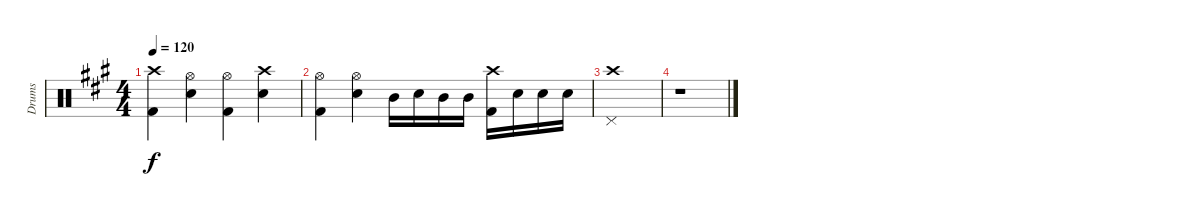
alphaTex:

\track ("Drums" "Drums") {instrument percussion}
\staff {score}
\articulation defaults
\ts (4 4)
\tempo 120
\clef neutral
\ks a
("Crash high (hit)" "Kick (hit) 2").4{dy f} ("Hi-Hat (open)" "Snare (hit) 2").4 ("Hi-Hat (open)" "Kick (hit) 2").4 ("Crash high (hit)" "Snare (hit) 2").4 |
("Hi-Hat (open)" "Kick (hit) 2").4 ("Hi-Hat (open)" "Snare (hit) 2").4 "Mid Tom (hit)".16 "Snare (hit) 2".16 "Mid Tom (hit)".16 "Mid Tom (hit)".16 ("Crash high (hit)" "Kick (hit) 2").16 "Snare (hit) 2".16 "Snare (hit) 2".16 "Snare (hit) 2".16 |
("Crash high (hit)" "Pedal Hi-Hat (hit)").1 |
r.1
